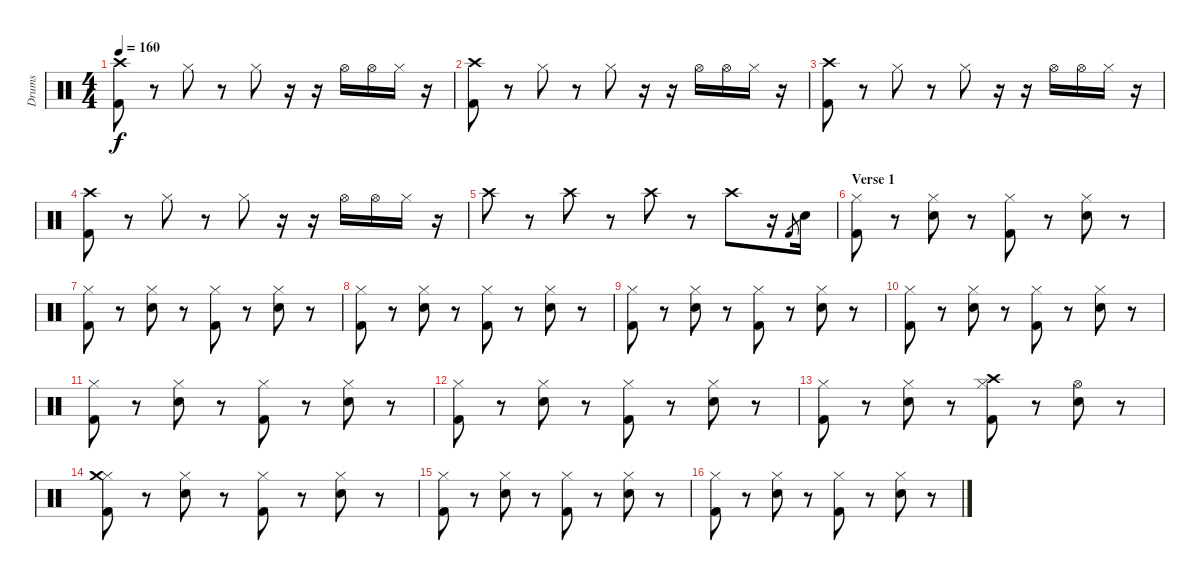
\track ("Drums" "Drums") {instrument percussion}
\staff {score}
\articulation defaults
\ts (4 4)
\tempo 160
\clef neutral
\ks c
("Kick (hit) 2" "Crash high (hit)").8{dy f} r.8 "Hi-Hat (closed)".8 r.8 "Hi-Hat (closed)".8 r.16 r.16 "Hi-Hat (open)".16 "Hi-Hat (open)".16 "Hi-Hat (closed)".16 r.16 |
("Kick (hit) 2" "Crash high (hit)").8 r.8 "Hi-Hat (closed)".8 r.8 "Hi-Hat (closed)".8 r.16 r.16 "Hi-Hat (open)".16 "Hi-Hat (open)".16 "Hi-Hat (closed)".16 r.16 |
("Kick (hit) 2" "Crash high (hit)").8 r.8 "Hi-Hat (closed)".8 r.8 "Hi-Hat (closed)".8 r.16 r.16 "Hi-Hat (open)".16 "Hi-Hat (open)".16 "Hi-Hat (closed)".16 r.16 |
("Kick (hit) 2" "Crash high (hit)").8 r.8 "Hi-Hat (closed)".8 r.8 "Hi-Hat (closed)".8 r.16 r.16 "Hi-Hat (open)".16 "Hi-Hat (open)".16 "Hi-Hat (closed)".16 r.16 |
"Crash high (hit)".8 r.8 "Crash high (hit)".8 r.8 "Crash high (hit)".8 r.8 "Crash high (hit)".8 r.16 "Kick (hit) 2".8{gr} "Electric Snare (hit)".16 |
\section ("" "Verse 1")
("Hi-Hat (closed)" "Kick (hit) 2").8 r.8 ("Hi-Hat (closed)" "Electric Snare (hit)").8 r.8 ("Hi-Hat (closed)" "Kick (hit) 2").8 r.8 ("Hi-Hat (closed)" "Electric Snare (hit)").8 r.8 |
("Hi-Hat (closed)" "Kick (hit) 2").8 r.8 ("Hi-Hat (closed)" "Electric Snare (hit)").8 r.8 ("Hi-Hat (closed)" "Kick (hit) 2").8 r.8 ("Hi-Hat (closed)" "Electric Snare (hit)").8 r.8 |
("Hi-Hat (closed)" "Kick (hit) 2").8 r.8 ("Hi-Hat (closed)" "Electric Snare (hit)").8 r.8 ("Hi-Hat (closed)" "Kick (hit) 2").8 r.8 ("Hi-Hat (closed)" "Electric Snare (hit)").8 r.8 |
("Hi-Hat (closed)" "Kick (hit) 2").8 r.8 ("Hi-Hat (closed)" "Electric Snare (hit)").8 r.8 ("Hi-Hat (closed)" "Kick (hit) 2").8 r.8 ("Hi-Hat (closed)" "Electric Snare (hit)").8 r.8 |
("Hi-Hat (closed)" "Kick (hit) 2").8 r.8 ("Hi-Hat (closed)" "Electric Snare (hit)").8 r.8 ("Hi-Hat (closed)" "Kick (hit) 2").8 r.8 ("Hi-Hat (closed)" "Electric Snare (hit)").8 r.8 |
("Hi-Hat (closed)" "Kick (hit) 2").8 r.8 ("Hi-Hat (closed)" "Electric Snare (hit)").8 r.8 ("Hi-Hat (closed)" "Kick (hit) 2").8 r.8 ("Hi-Hat (closed)" "Electric Snare (hit)").8 r.8 |
("Hi-Hat (closed)" "Kick (hit) 2").8 r.8 ("Hi-Hat (closed)" "Electric Snare (hit)").8 r.8 ("Hi-Hat (closed)" "Kick (hit) 2").8 r.8 ("Hi-Hat (closed)" "Electric Snare (hit)").8 r.8 |
("Hi-Hat (closed)" "Kick (hit) 2").8 r.8 ("Hi-Hat (closed)" "Electric Snare (hit)").8 r.8 ("Hi-Hat (closed)" "Kick (hit) 2" "Crash high (hit)").8 r.8 ("Hi-Hat (open)" "Electric Snare (hit)").8 r.8 |
("Hi-Hat (closed)" "Kick (hit) 2" "Crash medium (hit)").8 r.8 ("Hi-Hat (closed)" "Electric Snare (hit)").8 r.8 ("Hi-Hat (closed)" "Kick (hit) 2").8 r.8 ("Hi-Hat (closed)" "Electric Snare (hit)").8 r.8 |
("Hi-Hat (closed)" "Kick (hit) 2").8 r.8 ("Hi-Hat (closed)" "Electric Snare (hit)").8 r.8 ("Hi-Hat (closed)" "Kick (hit) 2").8 r.8 ("Hi-Hat (closed)" "Electric Snare (hit)").8 r.8 |
("Hi-Hat (closed)" "Kick (hit) 2").8 r.8 ("Hi-Hat (closed)" "Electric Snare (hit)").8 r.8 ("Hi-Hat (closed)" "Kick (hit) 2").8 r.8 ("Hi-Hat (closed)" "Electric Snare (hit)").8 r.8
